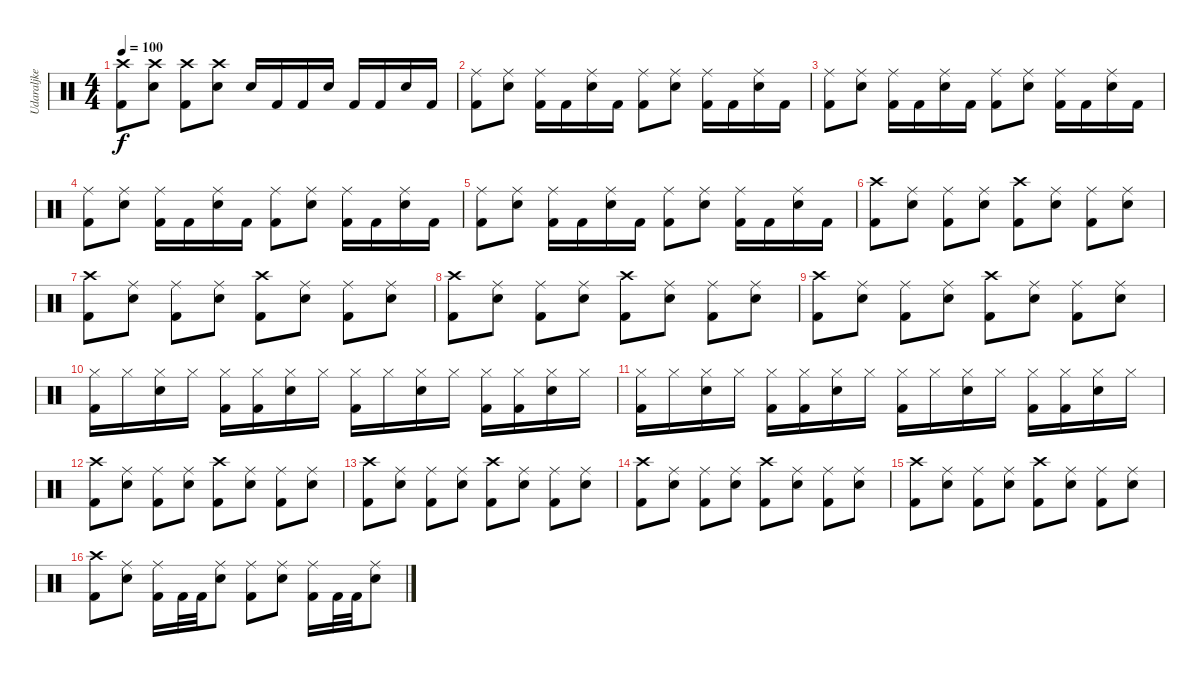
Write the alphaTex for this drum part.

\track ("Udaraljke" "Udaraljke") {instrument percussion}
\staff {score}
\articulation defaults
\ts (4 4)
\tempo 100
\clef neutral
\ks c
("Kick (hit) 2" "Crash high (hit)").8{dy f} ("Snare (hit) 2" "Crash high (hit)").8 ("Kick (hit) 2" "Crash high (hit)").8 ("Snare (hit) 2" "Crash high (hit)").8 "Snare (hit) 2".16 "Kick (hit) 2".16 "Kick (hit) 2".16 "Snare (hit) 2".16 "Kick (hit) 2".16 "Kick (hit) 2".16 "Snare (hit) 2".16 "Kick (hit) 2".16 |
("Kick (hit) 2" "Ride (middle)").8 ("Snare (hit) 2" "Ride (middle)").8 ("Kick (hit) 2" "Ride (middle)").16 "Kick (hit) 2".16 ("Snare (hit) 2" "Ride (middle)").16 "Kick (hit) 2".16 ("Kick (hit) 2" "Ride (middle)").8 ("Snare (hit) 2" "Ride (middle)").8 ("Kick (hit) 2" "Ride (middle)").16 "Kick (hit) 2".16 ("Snare (hit) 2" "Ride (middle)").16 "Kick (hit) 2".16 |
("Kick (hit) 2" "Ride (middle)").8 ("Snare (hit) 2" "Ride (middle)").8 ("Kick (hit) 2" "Ride (middle)").16 "Kick (hit) 2".16 ("Snare (hit) 2" "Ride (middle)").16 "Kick (hit) 2".16 ("Kick (hit) 2" "Ride (middle)").8 ("Snare (hit) 2" "Ride (middle)").8 ("Kick (hit) 2" "Ride (middle)").16 "Kick (hit) 2".16 ("Snare (hit) 2" "Ride (middle)").16 "Kick (hit) 2".16 |
("Kick (hit) 2" "Ride (middle)").8 ("Snare (hit) 2" "Ride (middle)").8 ("Kick (hit) 2" "Ride (middle)").16 "Kick (hit) 2".16 ("Snare (hit) 2" "Ride (middle)").16 "Kick (hit) 2".16 ("Kick (hit) 2" "Ride (middle)").8 ("Snare (hit) 2" "Ride (middle)").8 ("Kick (hit) 2" "Ride (middle)").16 "Kick (hit) 2".16 ("Snare (hit) 2" "Ride (middle)").16 "Kick (hit) 2".16 |
("Kick (hit) 2" "Ride (middle)").8 ("Snare (hit) 2" "Ride (middle)").8 ("Kick (hit) 2" "Ride (middle)").16 "Kick (hit) 2".16 ("Snare (hit) 2" "Ride (middle)").16 "Kick (hit) 2".16 ("Kick (hit) 2" "Ride (middle)").8 ("Snare (hit) 2" "Ride (middle)").8 ("Kick (hit) 2" "Ride (middle)").16 "Kick (hit) 2".16 ("Snare (hit) 2" "Ride (middle)").16 "Kick (hit) 2".16 |
("Kick (hit) 2" "Crash high (hit)").8 ("Snare (hit) 2" "Ride (middle)").8 ("Kick (hit) 2" "Ride (middle)").8 ("Snare (hit) 2" "Ride (middle)").8 ("Kick (hit) 2" "Crash high (hit)").8 ("Snare (hit) 2" "Ride (middle)").8 ("Kick (hit) 2" "Ride (middle)").8 ("Snare (hit) 2" "Ride (middle)").8 |
("Kick (hit) 2" "Crash high (hit)").8 ("Snare (hit) 2" "Ride (middle)").8 ("Kick (hit) 2" "Ride (middle)").8 ("Snare (hit) 2" "Ride (middle)").8 ("Kick (hit) 2" "Crash high (hit)").8 ("Snare (hit) 2" "Ride (middle)").8 ("Kick (hit) 2" "Ride (middle)").8 ("Snare (hit) 2" "Ride (middle)").8 |
("Kick (hit) 2" "Crash high (hit)").8 ("Snare (hit) 2" "Ride (middle)").8 ("Kick (hit) 2" "Ride (middle)").8 ("Snare (hit) 2" "Ride (middle)").8 ("Kick (hit) 2" "Crash high (hit)").8 ("Snare (hit) 2" "Ride (middle)").8 ("Kick (hit) 2" "Ride (middle)").8 ("Snare (hit) 2" "Ride (middle)").8 |
("Kick (hit) 2" "Crash high (hit)").8 ("Snare (hit) 2" "Ride (middle)").8 ("Kick (hit) 2" "Ride (middle)").8 ("Snare (hit) 2" "Ride (middle)").8 ("Kick (hit) 2" "Crash high (hit)").8 ("Snare (hit) 2" "Ride (middle)").8 ("Kick (hit) 2" "Ride (middle)").8 ("Snare (hit) 2" "Ride (middle)").8 |
("Kick (hit) 2" "Hi-Hat (closed)").16 "Hi-Hat (closed)".16 ("Snare (hit) 2" "Hi-Hat (closed)").16 "Hi-Hat (closed)".16 ("Kick (hit) 2" "Hi-Hat (closed)").16 ("Kick (hit) 2" "Hi-Hat (closed)").16 ("Snare (hit) 2" "Hi-Hat (closed)").16 "Hi-Hat (closed)".16 ("Kick (hit) 2" "Hi-Hat (closed)").16 "Hi-Hat (closed)".16 ("Snare (hit) 2" "Hi-Hat (closed)").16 "Hi-Hat (closed)".16 ("Kick (hit) 2" "Hi-Hat (closed)").16 ("Kick (hit) 2" "Hi-Hat (closed)").16 ("Snare (hit) 2" "Hi-Hat (closed)").16 "Hi-Hat (closed)".16 |
("Kick (hit) 2" "Hi-Hat (closed)").16 "Hi-Hat (closed)".16 ("Snare (hit) 2" "Hi-Hat (closed)").16 "Hi-Hat (closed)".16 ("Kick (hit) 2" "Hi-Hat (closed)").16 ("Kick (hit) 2" "Hi-Hat (closed)").16 ("Snare (hit) 2" "Hi-Hat (closed)").16 "Hi-Hat (closed)".16 ("Kick (hit) 2" "Hi-Hat (closed)").16 "Hi-Hat (closed)".16 ("Snare (hit) 2" "Hi-Hat (closed)").16 "Hi-Hat (closed)".16 ("Kick (hit) 2" "Hi-Hat (closed)").16 ("Kick (hit) 2" "Hi-Hat (closed)").16 ("Snare (hit) 2" "Hi-Hat (closed)").16 "Hi-Hat (closed)".16 |
("Kick (hit) 2" "Crash high (hit)").8 ("Snare (hit) 2" "Ride (middle)").8 ("Kick (hit) 2" "Ride (middle)").8 ("Snare (hit) 2" "Ride (middle)").8 ("Kick (hit) 2" "Crash high (hit)").8 ("Snare (hit) 2" "Ride (middle)").8 ("Kick (hit) 2" "Ride (middle)").8 ("Snare (hit) 2" "Ride (middle)").8 |
("Kick (hit) 2" "Crash high (hit)").8 ("Snare (hit) 2" "Ride (middle)").8 ("Kick (hit) 2" "Ride (middle)").8 ("Snare (hit) 2" "Ride (middle)").8 ("Kick (hit) 2" "Crash high (hit)").8 ("Snare (hit) 2" "Ride (middle)").8 ("Kick (hit) 2" "Ride (middle)").8 ("Snare (hit) 2" "Ride (middle)").8 |
("Kick (hit) 2" "Crash high (hit)").8 ("Snare (hit) 2" "Ride (middle)").8 ("Kick (hit) 2" "Ride (middle)").8 ("Snare (hit) 2" "Ride (middle)").8 ("Kick (hit) 2" "Crash high (hit)").8 ("Snare (hit) 2" "Ride (middle)").8 ("Kick (hit) 2" "Ride (middle)").8 ("Snare (hit) 2" "Ride (middle)").8 |
("Kick (hit) 2" "Crash high (hit)").8 ("Snare (hit) 2" "Ride (middle)").8 ("Kick (hit) 2" "Ride (middle)").8 ("Snare (hit) 2" "Ride (middle)").8 ("Kick (hit) 2" "Crash high (hit)").8 ("Snare (hit) 2" "Ride (middle)").8 ("Kick (hit) 2" "Ride (middle)").8 ("Snare (hit) 2" "Ride (middle)").8 |
("Kick (hit) 2" "Crash high (hit)").8 ("Snare (hit) 2" "Ride (middle)").8 ("Kick (hit) 2" "Ride (middle)").16 "Kick (hit) 2".32 "Kick (hit) 2".32 ("Snare (hit) 2" "Ride (middle)").8 ("Kick (hit) 2" "Ride (middle)").8 ("Snare (hit) 2" "Ride (middle)").8 ("Kick (hit) 2" "Ride (middle)").16 "Kick (hit) 2".32 "Kick (hit) 2".32 ("Snare (hit) 2" "Ride (middle)").8
